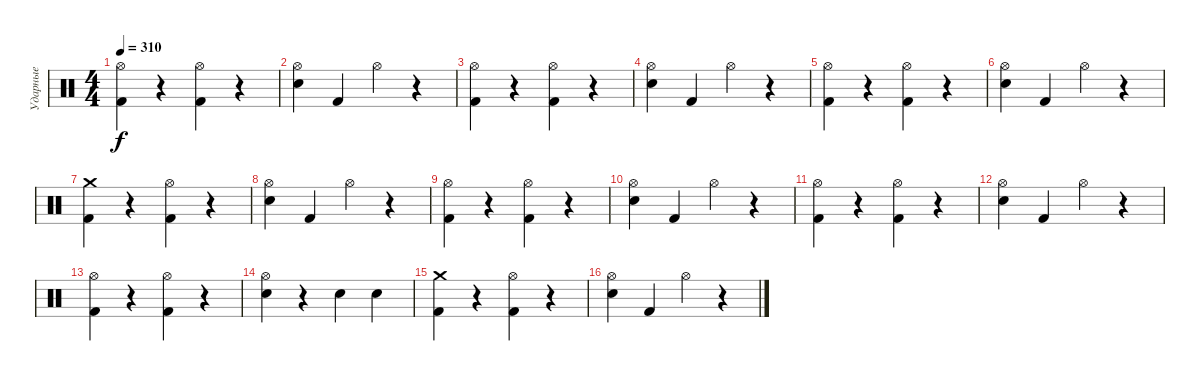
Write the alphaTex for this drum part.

\track ("Ударные" "Ударные") {instrument percussion}
\staff {score}
\articulation defaults
\ts (4 4)
\tempo 310
\clef neutral
\ks c
("Hi-Hat (open)" "Kick (hit) 2").4{dy f} r.4 ("Hi-Hat (open)" "Kick (hit) 2").4 r.4 |
("Hi-Hat (open)" "Electric Snare (hit)").4 "Kick (hit) 2".4 "Hi-Hat (open)".4 r.4 |
("Hi-Hat (open)" "Kick (hit) 2").4 r.4 ("Hi-Hat (open)" "Kick (hit) 2").4 r.4 |
("Hi-Hat (open)" "Electric Snare (hit)").4 "Kick (hit) 2".4 "Hi-Hat (open)".4 r.4 |
("Hi-Hat (open)" "Kick (hit) 2").4 r.4 ("Hi-Hat (open)" "Kick (hit) 2").4 r.4 |
("Hi-Hat (open)" "Electric Snare (hit)").4 "Kick (hit) 2".4 "Hi-Hat (open)".4 r.4 |
("Crash medium (hit)" "Kick (hit) 2").4 r.4 ("Hi-Hat (open)" "Kick (hit) 2").4 r.4 |
("Hi-Hat (open)" "Electric Snare (hit)").4 "Kick (hit) 2".4 "Hi-Hat (open)".4 r.4 |
("Hi-Hat (open)" "Kick (hit) 2").4 r.4 ("Hi-Hat (open)" "Kick (hit) 2").4 r.4 |
("Hi-Hat (open)" "Electric Snare (hit)").4 "Kick (hit) 2".4 "Hi-Hat (open)".4 r.4 |
("Hi-Hat (open)" "Kick (hit) 2").4 r.4 ("Hi-Hat (open)" "Kick (hit) 2").4 r.4 |
("Hi-Hat (open)" "Electric Snare (hit)").4 "Kick (hit) 2".4 "Hi-Hat (open)".4 r.4 |
("Hi-Hat (open)" "Kick (hit) 2").4 r.4 ("Hi-Hat (open)" "Kick (hit) 2").4 r.4 |
("Hi-Hat (open)" "Electric Snare (hit)").4 r.4 "Electric Snare (hit)".4 "Electric Snare (hit)".4 |
("Crash medium (hit)" "Kick (hit) 2").4 r.4 ("Hi-Hat (open)" "Kick (hit) 2").4 r.4 |
("Hi-Hat (open)" "Electric Snare (hit)").4 "Kick (hit) 2".4 "Hi-Hat (open)".4 r.4
